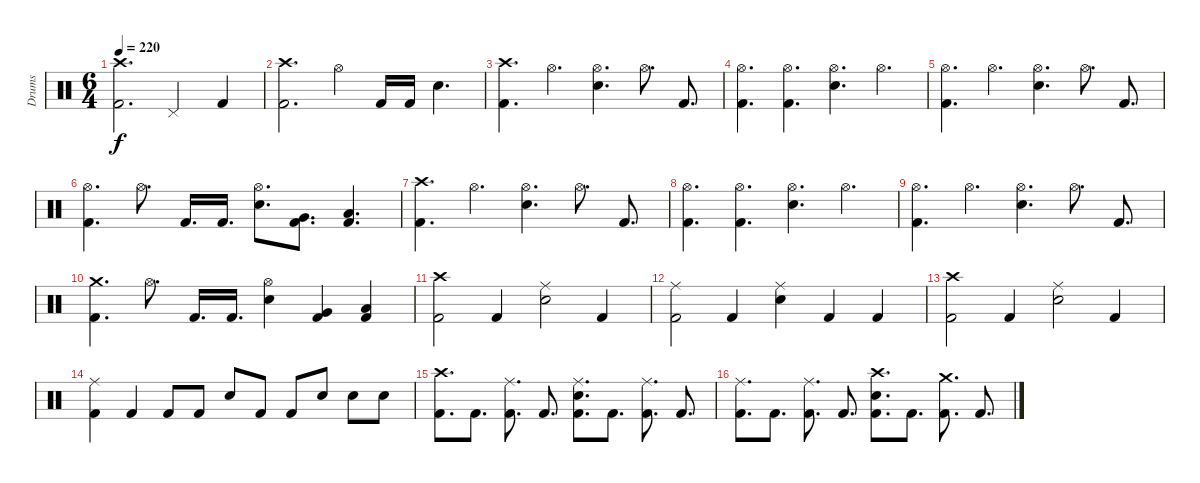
\track ("Drums" "Drums") {instrument percussion}
\staff {score}
\articulation defaults
\ts (6 4)
\tempo 220
\clef neutral
\ks c
("Crash high (hit)" "Kick (hit) 2").2{d dy f} "Pedal Hi-Hat (hit)".2 "Kick (hit) 2".4 |
("Crash high (hit)" "Kick (hit) 2").2{d} "Hi-Hat (open)".4 "Kick (hit) 2".16 "Kick (hit) 2".16 "Electric Snare (hit)".4{d} |
("Crash high (hit)" "Kick (hit) 2").4{d} "Hi-Hat (open)".4{d} ("Hi-Hat (open)" "Electric Snare (hit)").4{d} "Hi-Hat (open)".8{d} "Kick (hit) 2".8{d} |
("Hi-Hat (open)" "Kick (hit) 2").4{d} ("Hi-Hat (open)" "Kick (hit) 2").4{d} ("Hi-Hat (open)" "Electric Snare (hit)").4{d} "Hi-Hat (open)".4{d} |
("Hi-Hat (open)" "Kick (hit) 2").4{d} "Hi-Hat (open)".4{d} ("Hi-Hat (open)" "Electric Snare (hit)").4{d} "Hi-Hat (open)".8{d} "Kick (hit) 2".8{d} |
("Hi-Hat (open)" "Kick (hit) 2").4{d} "Hi-Hat (open)".8{d} "Kick (hit) 2".16{d} "Kick (hit) 2".16{d} ("Hi-Hat (open)" "Electric Snare (hit)").8{d} ("Very Low Tom (hit)" "Kick (hit) 2").8{d} ("Low Floor Tom (hit)" "Kick (hit) 2").4{d} |
("Crash high (hit)" "Kick (hit) 2").4{d} "Hi-Hat (open)".4{d} ("Hi-Hat (open)" "Electric Snare (hit)").4{d} "Hi-Hat (open)".8{d} "Kick (hit) 2".8{d} |
("Hi-Hat (open)" "Kick (hit) 2").4{d} ("Hi-Hat (open)" "Kick (hit) 2").4{d} ("Hi-Hat (open)" "Electric Snare (hit)").4{d} "Hi-Hat (open)".4{d} |
("Hi-Hat (open)" "Kick (hit) 2").4{d} "Hi-Hat (open)".4{d} ("Hi-Hat (open)" "Electric Snare (hit)").4{d} "Hi-Hat (open)".8{d} "Kick (hit) 2".8{d} |
("Crash medium (hit)" "Kick (hit) 2").4{d} "Hi-Hat (open)".8{d} "Kick (hit) 2".16{d} "Kick (hit) 2".16{d} ("Hi-Hat (open)" "Electric Snare (hit)").4 ("Very Low Tom (hit)" "Kick (hit) 2").4 ("Low Floor Tom (hit)" "Kick (hit) 2").4 |
("Crash high (hit)" "Kick (hit) 2").2 "Kick (hit) 2".4 ("Ride (middle)" "Electric Snare (hit)").2 "Kick (hit) 2".4 |
("Ride (middle)" "Kick (hit) 2").2 "Kick (hit) 2".4 ("Ride (middle)" "Electric Snare (hit)").4 "Kick (hit) 2".4 "Kick (hit) 2".4 |
("Crash high (hit)" "Kick (hit) 2").2 "Kick (hit) 2".4 ("Ride (middle)" "Electric Snare (hit)").2 "Kick (hit) 2".4 |
("Ride (middle)" "Kick (hit) 2").4 "Kick (hit) 2".4 "Kick (hit) 2".8 "Kick (hit) 2".8 "Electric Snare (hit)".8 "Kick (hit) 2".8 "Kick (hit) 2".8 "Electric Snare (hit)".8 "Electric Snare (hit)".8 "Electric Snare (hit)".8 |
("Crash high (hit)" "Kick (hit) 2").8{d} "Kick (hit) 2".8{d} ("Ride (middle)" "Kick (hit) 2").8{d} "Kick (hit) 2".8{d} ("Ride (middle)" "Electric Snare (hit)" "Kick (hit) 2").8{d} "Kick (hit) 2".8{d} ("Ride (middle)" "Kick (hit) 2").8{d} "Kick (hit) 2".8{d} |
("Ride (middle)" "Kick (hit) 2").8{d} "Kick (hit) 2".8{d} ("Ride (middle)" "Kick (hit) 2").8{d} "Kick (hit) 2".8{d} ("Crash high (hit)" "Electric Snare (hit)" "Kick (hit) 2").8{d} "Kick (hit) 2".8{d} ("Crash medium (hit)" "Kick (hit) 2").8{d} "Kick (hit) 2".8{d}
